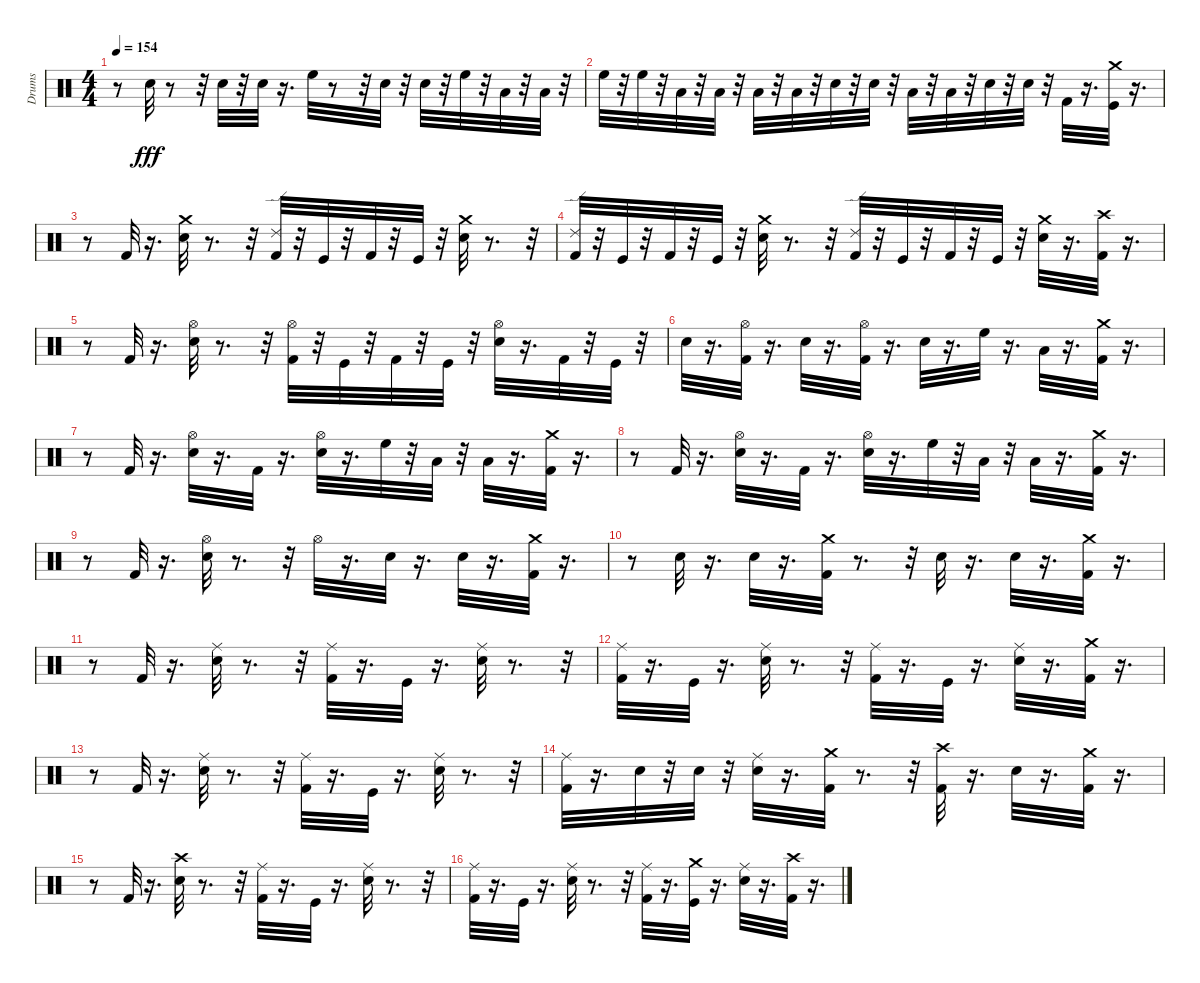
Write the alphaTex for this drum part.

\track ("Drums" "Drums") {instrument percussion}
\staff {score}
\articulation defaults
\ts (4 4)
\tempo 154
\clef neutral
\ks c
r.8{dy fff} "Snare (hit) 2".32 r.8 r.32 "Snare (hit) 2".32 r.32 "Snare (hit) 2".32 r.16{d} "High Floor Tom (hit)".32 r.8 r.32 "Snare (hit) 2".32 r.32 "Snare (hit) 2".32 r.32 "High Floor Tom (hit)".32 r.32 "Low Tom (hit)".32 r.32 "Low Tom (hit)".32 r.32 |
"High Floor Tom (hit)".32 r.32 "High Floor Tom (hit)".32 r.32 "Low Tom (hit)".32 r.32 "Low Tom (hit)".32 r.32 "Low Floor Tom (hit)".32 r.32 "Low Floor Tom (hit)".32 r.32 "Snare (hit) 2".32 r.32 "Snare (hit) 2".32 r.32 "Low Floor Tom (hit)".32 r.32 "Low Floor Tom (hit)".32 r.32 "Snare (hit) 2".32 r.32 "Snare (hit) 2".32 r.32 "Kick (hit) 2".32 r.16{d} ("Crash medium (hit)" "Kick (hit)").32 r.16{d} |
r.8 "Kick (hit) 2".32 r.16{d} ("Crash medium (hit)" "Snare (hit) 2").32 r.8{d} r.32 ("Ride (edge) 2" "Kick (hit) 2").32 r.32 "Kick (hit)".32 r.32 "Kick (hit) 2".32 r.32 "Kick (hit)".32 r.32 ("Crash medium (hit)" "Snare (hit) 2").32 r.8{d} r.32 |
("Kick (hit) 2" "Ride (edge) 2").32 r.32 "Kick (hit)".32 r.32 "Kick (hit) 2".32 r.32 "Kick (hit)".32 r.32 ("Snare (hit) 2" "Crash medium (hit)").32 r.8{d} r.32 ("Kick (hit) 2" "Ride (edge) 2").32 r.32 "Kick (hit)".32 r.32 "Kick (hit) 2".32 r.32 "Kick (hit)".32 r.32 ("Snare (hit) 2" "Crash medium (hit)").32 r.16{d} ("Kick (hit) 2" "Crash high (hit)").32 r.16{d} |
r.8 "Kick (hit) 2".32 r.16{d} ("Snare (hit) 2" "Hi-Hat (open)").32 r.8{d} r.32 ("Kick (hit) 2" "Hi-Hat (open)").32 r.32 "Kick (hit)".32 r.32 "Kick (hit) 2".32 r.32 "Kick (hit)".32 r.32 ("Snare (hit) 2" "Hi-Hat (open)").32 r.16{d} "Kick (hit) 2".32 r.32 "Kick (hit)".32 r.32 |
"Snare (hit) 2".32 r.16{d} ("Kick (hit) 2" "Hi-Hat (open)").32 r.16{d} "Snare (hit) 2".32 r.16{d} ("Kick (hit) 2" "Hi-Hat (open)").32 r.16{d} "Snare (hit) 2".32 r.16{d} "High Floor Tom (hit)".32 r.16{d} "Low Tom (hit)".32 r.16{d} ("Kick (hit) 2" "Crash medium (hit)").32 r.16{d} |
r.8 "Kick (hit) 2".32 r.16{d} ("Snare (hit) 2" "Hi-Hat (open)").32 r.16{d} "Kick (hit) 2".32 r.16{d} ("Snare (hit) 2" "Hi-Hat (open)").32 r.16{d} "High Floor Tom (hit)".32 r.32 "Low Tom (hit)".32 r.32 "Low Floor Tom (hit)".32 r.16{d} ("Crash medium (hit)" "Kick (hit) 2").32 r.16{d} |
r.8 "Kick (hit) 2".32 r.16{d} ("Hi-Hat (open)" "Snare (hit) 2").32 r.16{d} "Kick (hit) 2".32 r.16{d} ("Snare (hit) 2" "Hi-Hat (open)").32 r.16{d} "High Floor Tom (hit)".32 r.32 "Low Tom (hit)".32 r.32 "Low Floor Tom (hit)".32 r.16{d} ("Crash medium (hit)" "Kick (hit) 2").32 r.16{d} |
r.8 "Kick (hit) 2".32 r.16{d} ("Snare (hit) 2" "Hi-Hat (open)").32 r.8{d} r.32 "Hi-Hat (open)".32 r.16{d} "Snare (hit) 2".32 r.16{d} "Snare (hit) 2".32 r.16{d} ("Crash medium (hit)" "Kick (hit) 2").32 r.16{d} |
r.8 "Snare (hit) 2".32 r.16{d} "Snare (hit) 2".32 r.16{d} ("Kick (hit) 2" "Crash medium (hit)").32 r.8{d} r.32 "Snare (hit) 2".32 r.16{d} "Snare (hit) 2".32 r.16{d} ("Crash medium (hit)" "Kick (hit) 2").32 r.16{d} |
r.8 "Kick (hit) 2".32 r.16{d} ("Snare (hit) 2" "Ride (middle)").32 r.8{d} r.32 ("Kick (hit) 2" "Ride (middle)").32 r.16{d} "Kick (hit)".32 r.16{d} ("Snare (hit) 2" "Ride (middle)").32 r.8{d} r.32 |
("Kick (hit) 2" "Ride (middle)").32 r.16{d} "Kick (hit)".32 r.16{d} ("Snare (hit) 2" "Ride (middle)").32 r.8{d} r.32 ("Ride (middle)" "Kick (hit) 2").32 r.16{d} "Kick (hit)".32 r.16{d} ("Snare (hit) 2" "Ride (middle)").32 r.16{d} ("Kick (hit) 2" "Crash medium (hit)").32 r.16{d} |
r.8 "Kick (hit) 2".32 r.16{d} ("Snare (hit) 2" "Ride (middle)").32 r.8{d} r.32 ("Kick (hit) 2" "Ride (middle)").32 r.16{d} "Kick (hit)".32 r.16{d} ("Snare (hit) 2" "Ride (middle)").32 r.8{d} r.32 |
("Kick (hit) 2" "Ride (middle)").32 r.16{d} "Snare (hit) 2".32 r.32 "Snare (hit) 2".32 r.32 ("Snare (hit) 2" "Ride (middle)").32 r.16{d} ("Kick (hit) 2" "Crash medium (hit)").32 r.8{d} r.32 ("Kick (hit) 2" "Crash high (hit)").32 r.16{d} "Snare (hit) 2".32 r.16{d} ("Kick (hit) 2" "Crash medium (hit)").32 r.16{d} |
r.8 "Kick (hit) 2".32 r.16{d} ("Snare (hit) 2" "Crash high (hit)").32 r.8{d} r.32 ("Kick (hit) 2" "Ride (middle)").32 r.16{d} "Kick (hit)".32 r.16{d} ("Snare (hit) 2" "Ride (middle)").32 r.8{d} r.32 |
("Kick (hit) 2" "Ride (middle)").32 r.16{d} "Kick (hit)".32 r.16{d} ("Snare (hit) 2" "Ride (middle)").32 r.8{d} r.32 ("Kick (hit) 2" "Ride (middle)").32 r.16{d} ("Kick (hit)" "Crash medium (hit)").32 r.16{d} ("Snare (hit) 2" "Ride (middle)").32 r.16{d} ("Kick (hit) 2" "Crash high (hit)").32 r.16{d}
